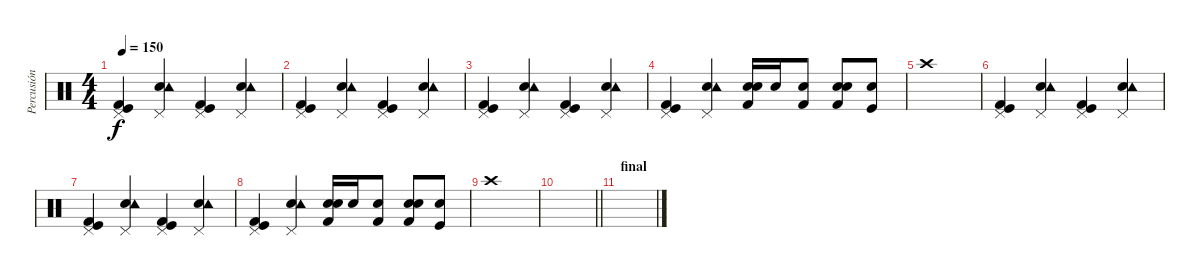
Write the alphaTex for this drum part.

\track ("Percusión" "Percusión") {instrument percussion}
\staff {score}
\articulation defaults
\ts (4 4)
\tempo 150
\clef neutral
\ks c
("Kick (hit)" "Pedal Hi-Hat (hit)" "Kick (hit) 2").4{dy f} ("Electric Snare (hit)" "Pedal Hi-Hat (hit)" "Tambourine (hit)").4 ("Kick (hit)" "Pedal Hi-Hat (hit)" "Kick (hit) 2").4 ("Electric Snare (hit)" "Pedal Hi-Hat (hit)" "Tambourine (hit)").4 |
("Kick (hit)" "Pedal Hi-Hat (hit)" "Kick (hit) 2").4 ("Electric Snare (hit)" "Pedal Hi-Hat (hit)" "Tambourine (hit)").4 ("Kick (hit)" "Pedal Hi-Hat (hit)" "Kick (hit) 2").4 ("Electric Snare (hit)" "Pedal Hi-Hat (hit)" "Tambourine (hit)").4 |
("Kick (hit)" "Pedal Hi-Hat (hit)" "Kick (hit) 2").4 ("Electric Snare (hit)" "Pedal Hi-Hat (hit)" "Tambourine (hit)").4 ("Kick (hit)" "Pedal Hi-Hat (hit)" "Kick (hit) 2").4 ("Electric Snare (hit)" "Pedal Hi-Hat (hit)" "Tambourine (hit)").4 |
("Kick (hit)" "Pedal Hi-Hat (hit)" "Kick (hit) 2").4 ("Electric Snare (hit)" "Pedal Hi-Hat (hit)" "Tambourine (hit)").4 ("Snare (hit) 2" "Electric Snare (hit)" "Kick (hit) 2").16 "Snare (hit) 2".16 ("Snare (hit) 2" "Kick (hit) 2").8 ("Snare (hit) 2" "Electric Snare (hit)" "Kick (hit) 2").8 ("Snare (hit) 2" "Kick (hit)").8 |
"Crash high (hit)".1 |
("Kick (hit)" "Pedal Hi-Hat (hit)" "Kick (hit) 2").4 ("Electric Snare (hit)" "Pedal Hi-Hat (hit)" "Tambourine (hit)").4 ("Kick (hit)" "Pedal Hi-Hat (hit)" "Kick (hit) 2").4 ("Electric Snare (hit)" "Pedal Hi-Hat (hit)" "Tambourine (hit)").4 |
("Kick (hit)" "Pedal Hi-Hat (hit)" "Kick (hit) 2").4 ("Electric Snare (hit)" "Pedal Hi-Hat (hit)" "Tambourine (hit)").4 ("Kick (hit)" "Pedal Hi-Hat (hit)" "Kick (hit) 2").4 ("Electric Snare (hit)" "Pedal Hi-Hat (hit)" "Tambourine (hit)").4 |
("Kick (hit)" "Pedal Hi-Hat (hit)" "Kick (hit) 2").4 ("Electric Snare (hit)" "Pedal Hi-Hat (hit)" "Tambourine (hit)").4 ("Snare (hit) 2" "Electric Snare (hit)" "Kick (hit) 2").16 "Snare (hit) 2".16 ("Snare (hit) 2" "Kick (hit) 2").8 ("Snare (hit) 2" "Electric Snare (hit)" "Kick (hit) 2").8 ("Snare (hit) 2" "Kick (hit)").8 |
"Crash high (hit)".1 |
\barLineRight lightlight
|
\section ("" "final")
